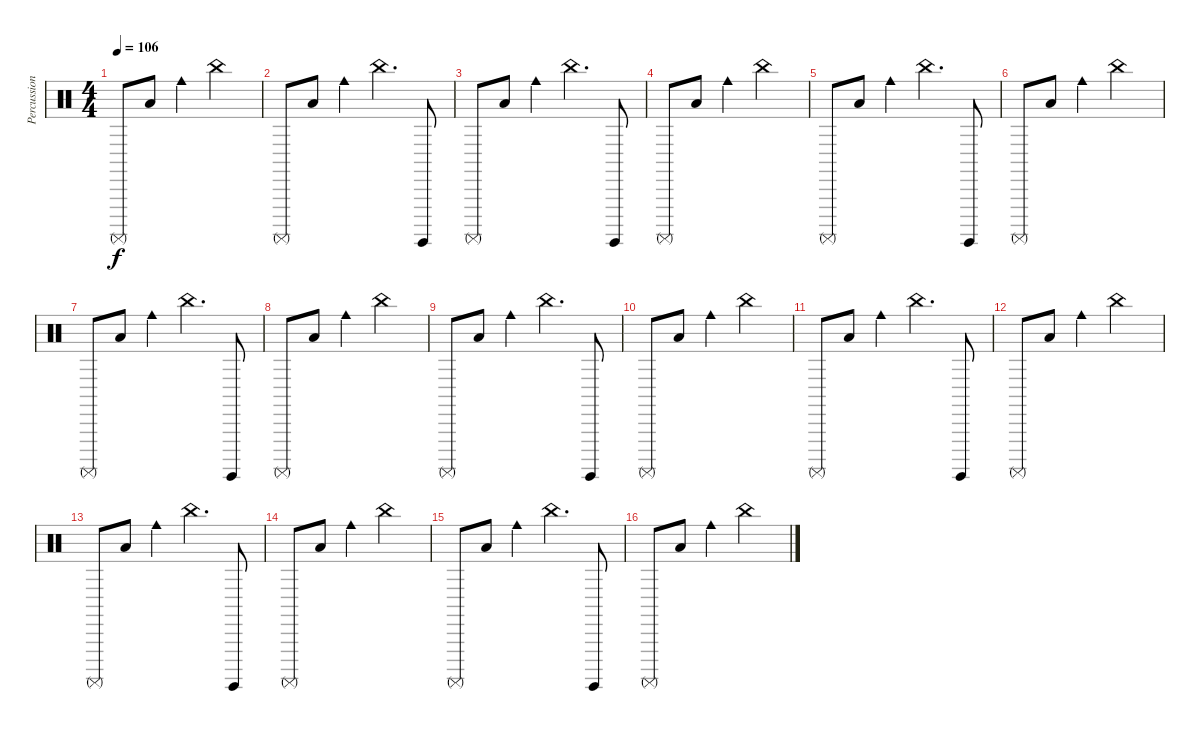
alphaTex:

\track ("Percussion" "Percussion") {instrument percussion}
\staff {score}
\articulation defaults
\ts (4 4)
\tempo 106
\clef neutral
\ks c "Surdo (mute)".8{dy f} "Low Floor Tom (hit)".8 "Cowbell medium (hit)".4 "China (hit)".2
|
"Surdo (mute)".8 "Low Floor Tom (hit)".8 "Cowbell medium (hit)".4 "China (hit)".4{d} "Surdo (hit)".8 |
"Surdo (mute)".8 "Low Floor Tom (hit)".8 "Cowbell medium (hit)".4 "China (hit)".4{d} "Surdo (hit)".8 |
"Surdo (mute)".8 "Low Floor Tom (hit)".8 "Cowbell medium (hit)".4 "China (hit)".2 |
"Surdo (mute)".8 "Low Floor Tom (hit)".8 "Cowbell medium (hit)".4 "China (hit)".4{d} "Surdo (hit)".8 |
"Surdo (mute)".8 "Low Floor Tom (hit)".8 "Cowbell medium (hit)".4 "China (hit)".2 |
"Surdo (mute)".8 "Low Floor Tom (hit)".8 "Cowbell medium (hit)".4 "China (hit)".4{d} "Surdo (hit)".8 |
"Surdo (mute)".8 "Low Floor Tom (hit)".8 "Cowbell medium (hit)".4 "China (hit)".2 |
"Surdo (mute)".8 "Low Floor Tom (hit)".8 "Cowbell medium (hit)".4 "China (hit)".4{d} "Surdo (hit)".8 |
"Surdo (mute)".8 "Low Floor Tom (hit)".8 "Cowbell medium (hit)".4 "China (hit)".2 |
"Surdo (mute)".8 "Low Floor Tom (hit)".8 "Cowbell medium (hit)".4 "China (hit)".4{d} "Surdo (hit)".8 |
"Surdo (mute)".8 "Low Floor Tom (hit)".8 "Cowbell medium (hit)".4 "China (hit)".2 |
"Surdo (mute)".8 "Low Floor Tom (hit)".8 "Cowbell medium (hit)".4 "China (hit)".4{d} "Surdo (hit)".8 |
"Surdo (mute)".8 "Low Floor Tom (hit)".8 "Cowbell medium (hit)".4 "China (hit)".2 |
"Surdo (mute)".8 "Low Floor Tom (hit)".8 "Cowbell medium (hit)".4 "China (hit)".4{d} "Surdo (hit)".8 |
"Surdo (mute)".8 "Low Floor Tom (hit)".8 "Cowbell medium (hit)".4 "China (hit)".2
